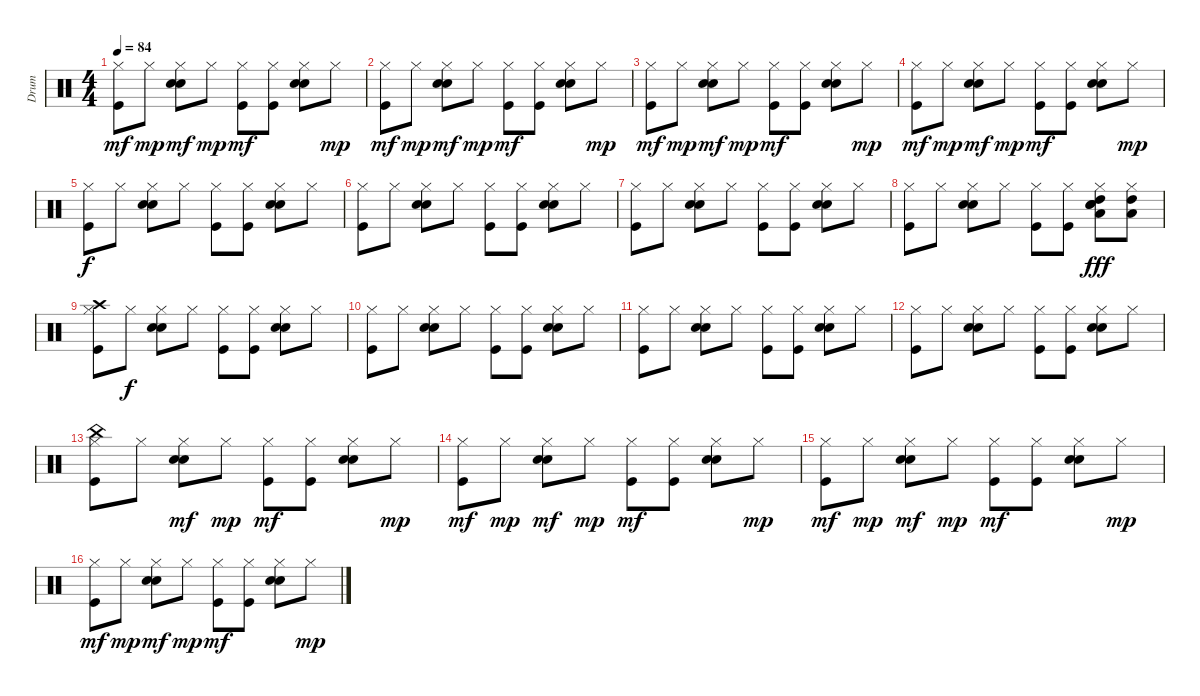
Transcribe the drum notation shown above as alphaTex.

\track ("Drum" "Drum") {instrument percussion}
\staff {score}
\articulation defaults
\ts (4 4)
\tempo 84
\clef neutral
\ks c
("Hi-Hat (closed)" "Kick (hit)").8{dy mf} "Hi-Hat (closed)".8{dy mp} ("Hi-Hat (closed)" "Electric Snare (hit)" "Hand Clap (hit)").8{dy mf} "Hi-Hat (closed)".8{dy mp} ("Hi-Hat (closed)" "Kick (hit)").8{dy mf} ("Hi-Hat (closed)" "Kick (hit)").8 ("Hi-Hat (closed)" "Electric Snare (hit)" "Hand Clap (hit)").8 "Hi-Hat (closed)".8{dy mp} |
("Hi-Hat (closed)" "Kick (hit)").8{dy mf} "Hi-Hat (closed)".8{dy mp} ("Hi-Hat (closed)" "Electric Snare (hit)" "Hand Clap (hit)").8{dy mf} "Hi-Hat (closed)".8{dy mp} ("Hi-Hat (closed)" "Kick (hit)").8{dy mf} ("Hi-Hat (closed)" "Kick (hit)").8 ("Hi-Hat (closed)" "Electric Snare (hit)" "Hand Clap (hit)").8 "Hi-Hat (closed)".8{dy mp} |
("Hi-Hat (closed)" "Kick (hit)").8{dy mf} "Hi-Hat (closed)".8{dy mp} ("Hi-Hat (closed)" "Electric Snare (hit)" "Hand Clap (hit)").8{dy mf} "Hi-Hat (closed)".8{dy mp} ("Hi-Hat (closed)" "Kick (hit)").8{dy mf} ("Hi-Hat (closed)" "Kick (hit)").8 ("Hi-Hat (closed)" "Electric Snare (hit)" "Hand Clap (hit)").8 "Hi-Hat (closed)".8{dy mp} |
("Hi-Hat (closed)" "Kick (hit)").8{dy mf} "Hi-Hat (closed)".8{dy mp} ("Hi-Hat (closed)" "Electric Snare (hit)" "Hand Clap (hit)").8{dy mf} "Hi-Hat (closed)".8{dy mp} ("Hi-Hat (closed)" "Kick (hit)").8{dy mf} ("Hi-Hat (closed)" "Kick (hit)").8 ("Hi-Hat (closed)" "Electric Snare (hit)" "Hand Clap (hit)").8 "Hi-Hat (closed)".8{dy mp} |
("Hi-Hat (closed)" "Kick (hit)").8{dy f} "Hi-Hat (closed)".8 ("Hi-Hat (closed)" "Electric Snare (hit)" "Hand Clap (hit)").8 "Hi-Hat (closed)".8 ("Hi-Hat (closed)" "Kick (hit)").8 ("Hi-Hat (closed)" "Kick (hit)").8 ("Hi-Hat (closed)" "Electric Snare (hit)" "Hand Clap (hit)").8 "Hi-Hat (closed)".8 |
("Hi-Hat (closed)" "Kick (hit)").8 "Hi-Hat (closed)".8 ("Hi-Hat (closed)" "Electric Snare (hit)" "Hand Clap (hit)").8 "Hi-Hat (closed)".8 ("Hi-Hat (closed)" "Kick (hit)").8 ("Hi-Hat (closed)" "Kick (hit)").8 ("Hi-Hat (closed)" "Electric Snare (hit)" "Hand Clap (hit)").8 "Hi-Hat (closed)".8 |
("Hi-Hat (closed)" "Kick (hit)").8 "Hi-Hat (closed)".8 ("Hi-Hat (closed)" "Electric Snare (hit)" "Hand Clap (hit)").8 "Hi-Hat (closed)".8 ("Hi-Hat (closed)" "Kick (hit)").8 ("Hi-Hat (closed)" "Kick (hit)").8 ("Hi-Hat (closed)" "Electric Snare (hit)" "Hand Clap (hit)").8 "Hi-Hat (closed)".8 |
("Hi-Hat (closed)" "Kick (hit)").8 "Hi-Hat (closed)".8 ("Hi-Hat (closed)" "Electric Snare (hit)" "Hand Clap (hit)").8 "Hi-Hat (closed)".8 ("Hi-Hat (closed)" "Kick (hit)").8 ("Hi-Hat (closed)" "Kick (hit)").8 ("Low Tom (hit)" "High Tom (hit)" "Hi-Hat (closed)" "Electric Snare (hit)" "Hand Clap (hit)").8{dy fff} ("Low Tom (hit)" "High Tom (hit)" "Hi-Hat (closed)").8 |
("Crash high (hit)" "Hi-Hat (closed)" "Kick (hit)").8 "Hi-Hat (closed)".8{dy f} ("Hi-Hat (closed)" "Electric Snare (hit)" "Hand Clap (hit)").8 "Hi-Hat (closed)".8 ("Hi-Hat (closed)" "Kick (hit)").8 ("Hi-Hat (closed)" "Kick (hit)").8 ("Hi-Hat (closed)" "Electric Snare (hit)" "Hand Clap (hit)").8 "Hi-Hat (closed)".8 |
("Hi-Hat (closed)" "Kick (hit)").8 "Hi-Hat (closed)".8 ("Hi-Hat (closed)" "Electric Snare (hit)" "Hand Clap (hit)").8 "Hi-Hat (closed)".8 ("Hi-Hat (closed)" "Kick (hit)").8 ("Hi-Hat (closed)" "Kick (hit)").8 ("Hi-Hat (closed)" "Electric Snare (hit)" "Hand Clap (hit)").8 "Hi-Hat (closed)".8 |
("Hi-Hat (closed)" "Kick (hit)").8 "Hi-Hat (closed)".8 ("Hi-Hat (closed)" "Electric Snare (hit)" "Hand Clap (hit)").8 "Hi-Hat (closed)".8 ("Hi-Hat (closed)" "Kick (hit)").8 ("Hi-Hat (closed)" "Kick (hit)").8 ("Hi-Hat (closed)" "Electric Snare (hit)" "Hand Clap (hit)").8 "Hi-Hat (closed)".8 |
("Hi-Hat (closed)" "Kick (hit)").8 "Hi-Hat (closed)".8 ("Hi-Hat (closed)" "Electric Snare (hit)" "Hand Clap (hit)").8 "Hi-Hat (closed)".8 ("Hi-Hat (closed)" "Kick (hit)").8 ("Hi-Hat (closed)" "Kick (hit)").8 ("Hi-Hat (closed)" "Electric Snare (hit)" "Hand Clap (hit)").8 "Hi-Hat (closed)".8 |
("China (hit)" "Hi-Hat (closed)" "Kick (hit)").8 "Hi-Hat (closed)".8 ("Hi-Hat (closed)" "Electric Snare (hit)" "Hand Clap (hit)").8{dy mf} "Hi-Hat (closed)".8{dy mp} ("Hi-Hat (closed)" "Kick (hit)").8{dy mf} ("Hi-Hat (closed)" "Kick (hit)").8 ("Hi-Hat (closed)" "Electric Snare (hit)" "Hand Clap (hit)").8 "Hi-Hat (closed)".8{dy mp} |
("Hi-Hat (closed)" "Kick (hit)").8{dy mf} "Hi-Hat (closed)".8{dy mp} ("Hi-Hat (closed)" "Electric Snare (hit)" "Hand Clap (hit)").8{dy mf} "Hi-Hat (closed)".8{dy mp} ("Hi-Hat (closed)" "Kick (hit)").8{dy mf} ("Hi-Hat (closed)" "Kick (hit)").8 ("Hi-Hat (closed)" "Electric Snare (hit)" "Hand Clap (hit)").8 "Hi-Hat (closed)".8{dy mp} |
("Hi-Hat (closed)" "Kick (hit)").8{dy mf} "Hi-Hat (closed)".8{dy mp} ("Hi-Hat (closed)" "Electric Snare (hit)" "Hand Clap (hit)").8{dy mf} "Hi-Hat (closed)".8{dy mp} ("Hi-Hat (closed)" "Kick (hit)").8{dy mf} ("Hi-Hat (closed)" "Kick (hit)").8 ("Hi-Hat (closed)" "Electric Snare (hit)" "Hand Clap (hit)").8 "Hi-Hat (closed)".8{dy mp} |
("Hi-Hat (closed)" "Kick (hit)").8{dy mf} "Hi-Hat (closed)".8{dy mp} ("Hi-Hat (closed)" "Electric Snare (hit)" "Hand Clap (hit)").8{dy mf} "Hi-Hat (closed)".8{dy mp} ("Hi-Hat (closed)" "Kick (hit)").8{dy mf} ("Hi-Hat (closed)" "Kick (hit)").8 ("Hi-Hat (closed)" "Electric Snare (hit)" "Hand Clap (hit)").8 "Hi-Hat (closed)".8{dy mp}
